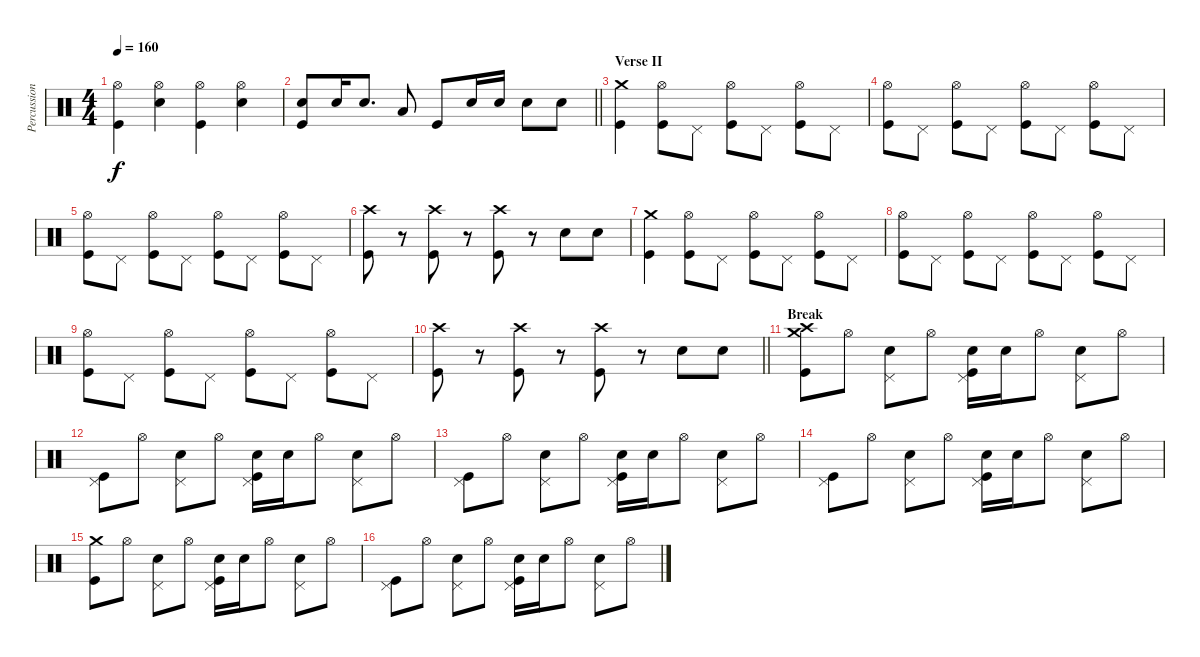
\track ("Percussion" "Percussion") {instrument percussion}
\staff {score}
\articulation defaults
\ts (4 4)
\tempo 160
\clef neutral
\ks c
("Hi-Hat (open)" "Kick (hit)").4{dy f} ("Hi-Hat (open)" "Electric Snare (hit)").4 ("Hi-Hat (open)" "Kick (hit)").4 ("Hi-Hat (open)" "Electric Snare (hit)").4 |
\barLineRight lightlight
("Electric Snare (hit)" "Kick (hit)").8 "Electric Snare (hit)".16 "Electric Snare (hit)".8{d} "Low Floor Tom (hit)".8 "Kick (hit)".8 "Electric Snare (hit)".16 "Electric Snare (hit)".16 "Electric Snare (hit)".8 "Electric Snare (hit)".8 |
\section ("" "Verse II")
("Crash medium (hit)" "Kick (hit)").4 ("Hi-Hat (open)" "Kick (hit)").8 "Pedal Hi-Hat (hit)".8 ("Hi-Hat (open)" "Kick (hit)").8 "Pedal Hi-Hat (hit)".8 ("Hi-Hat (open)" "Kick (hit)").8 "Pedal Hi-Hat (hit)".8 |
("Hi-Hat (open)" "Kick (hit)").8 "Pedal Hi-Hat (hit)".8 ("Hi-Hat (open)" "Kick (hit)").8 "Pedal Hi-Hat (hit)".8 ("Hi-Hat (open)" "Kick (hit)").8 "Pedal Hi-Hat (hit)".8 ("Hi-Hat (open)" "Kick (hit)").8 "Pedal Hi-Hat (hit)".8 |
("Hi-Hat (open)" "Kick (hit)").8 "Pedal Hi-Hat (hit)".8 ("Hi-Hat (open)" "Kick (hit)").8 "Pedal Hi-Hat (hit)".8 ("Hi-Hat (open)" "Kick (hit)").8 "Pedal Hi-Hat (hit)".8 ("Hi-Hat (open)" "Kick (hit)").8 "Pedal Hi-Hat (hit)".8 |
("Crash high (hit)" "Kick (hit)").8 r.8{volume 0} ("Crash high (hit)" "Kick (hit)").8{volume 13} r.8{volume 0} ("Crash high (hit)" "Kick (hit)").8{volume 13} r.8{volume 0} "Hand Clap (hit)".8{volume 13} "Hand Clap (hit)".8 |
("Crash medium (hit)" "Kick (hit)").4 ("Hi-Hat (open)" "Kick (hit)").8 "Pedal Hi-Hat (hit)".8 ("Hi-Hat (open)" "Kick (hit)").8 "Pedal Hi-Hat (hit)".8 ("Hi-Hat (open)" "Kick (hit)").8 "Pedal Hi-Hat (hit)".8 |
("Hi-Hat (open)" "Kick (hit)").8 "Pedal Hi-Hat (hit)".8 ("Hi-Hat (open)" "Kick (hit)").8 "Pedal Hi-Hat (hit)".8 ("Hi-Hat (open)" "Kick (hit)").8 "Pedal Hi-Hat (hit)".8 ("Hi-Hat (open)" "Kick (hit)").8 "Pedal Hi-Hat (hit)".8 |
("Hi-Hat (open)" "Kick (hit)").8 "Pedal Hi-Hat (hit)".8 ("Hi-Hat (open)" "Kick (hit)").8 "Pedal Hi-Hat (hit)".8 ("Hi-Hat (open)" "Kick (hit)").8 "Pedal Hi-Hat (hit)".8 ("Hi-Hat (open)" "Kick (hit)").8 "Pedal Hi-Hat (hit)".8 |
\barLineRight lightlight
("Crash high (hit)" "Kick (hit)").8 r.8{volume 0} ("Crash high (hit)" "Kick (hit)").8{volume 13} r.8{volume 0} ("Crash high (hit)" "Kick (hit)").8{volume 13} r.8{volume 0} "Hand Clap (hit)".8{volume 13} "Hand Clap (hit)".8 |
\section ("" "Break")
("Crash high (hit)" "Crash medium (hit)" "Kick (hit)").8 "Hi-Hat (open)".8 ("Pedal Hi-Hat (hit)" "Electric Snare (hit)").8 "Hi-Hat (open)".8 ("Pedal Hi-Hat (hit)" "Electric Snare (hit)" "Kick (hit)").16 "Electric Snare (hit)".16 "Hi-Hat (open)".8 ("Pedal Hi-Hat (hit)" "Electric Snare (hit)").8 "Hi-Hat (open)".8 |
("Pedal Hi-Hat (hit)" "Kick (hit)").8 "Hi-Hat (open)".8 ("Pedal Hi-Hat (hit)" "Electric Snare (hit)").8 "Hi-Hat (open)".8 ("Pedal Hi-Hat (hit)" "Electric Snare (hit)" "Kick (hit)").16 "Electric Snare (hit)".16 "Hi-Hat (open)".8 ("Pedal Hi-Hat (hit)" "Electric Snare (hit)").8 "Hi-Hat (open)".8 |
("Pedal Hi-Hat (hit)" "Kick (hit)").8 "Hi-Hat (open)".8 ("Pedal Hi-Hat (hit)" "Electric Snare (hit)").8 "Hi-Hat (open)".8 ("Pedal Hi-Hat (hit)" "Electric Snare (hit)" "Kick (hit)").16 "Electric Snare (hit)".16 "Hi-Hat (open)".8 ("Pedal Hi-Hat (hit)" "Electric Snare (hit)").8 "Hi-Hat (open)".8 |
("Pedal Hi-Hat (hit)" "Kick (hit)").8 "Hi-Hat (open)".8 ("Pedal Hi-Hat (hit)" "Electric Snare (hit)").8 "Hi-Hat (open)".8 ("Pedal Hi-Hat (hit)" "Electric Snare (hit)" "Kick (hit)").16 "Electric Snare (hit)".16 "Hi-Hat (open)".8 ("Pedal Hi-Hat (hit)" "Electric Snare (hit)").8 "Hi-Hat (open)".8 |
("Crash medium (hit)" "Kick (hit)").8 "Hi-Hat (open)".8 ("Pedal Hi-Hat (hit)" "Electric Snare (hit)").8 "Hi-Hat (open)".8 ("Pedal Hi-Hat (hit)" "Electric Snare (hit)" "Kick (hit)").16 "Electric Snare (hit)".16 "Hi-Hat (open)".8 ("Pedal Hi-Hat (hit)" "Electric Snare (hit)").8 "Hi-Hat (open)".8 |
("Pedal Hi-Hat (hit)" "Kick (hit)").8 "Hi-Hat (open)".8 ("Pedal Hi-Hat (hit)" "Electric Snare (hit)").8 "Hi-Hat (open)".8 ("Pedal Hi-Hat (hit)" "Electric Snare (hit)" "Kick (hit)").16 "Electric Snare (hit)".16 "Hi-Hat (open)".8 ("Pedal Hi-Hat (hit)" "Electric Snare (hit)").8 "Hi-Hat (open)".8
